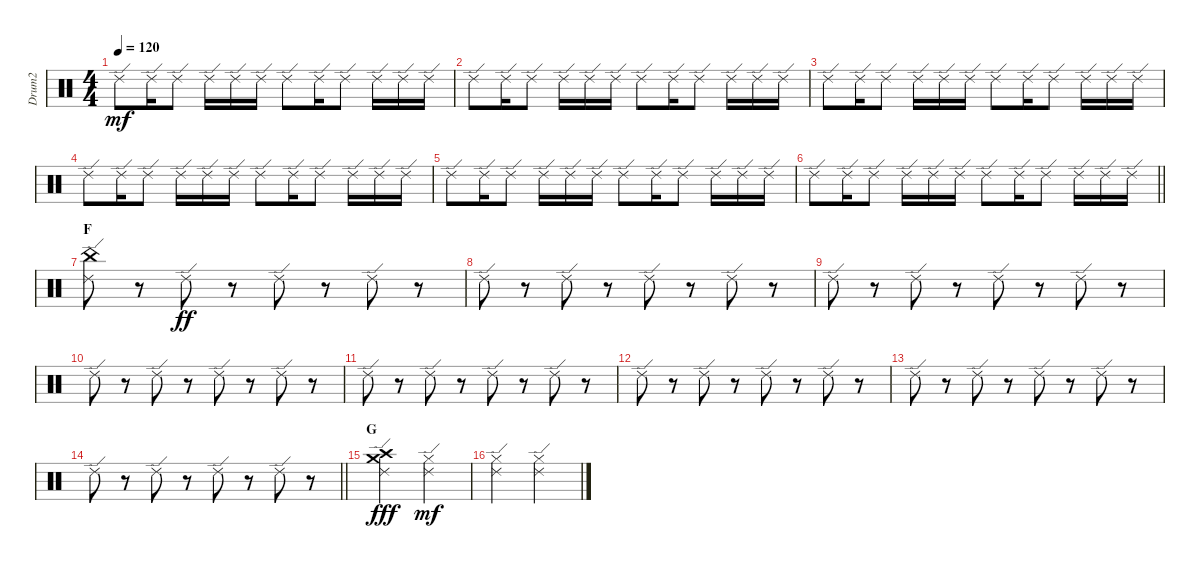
\track ("Drum2" "Drum2") {instrument percussion}
\staff {score}
\articulation defaults
\ts (4 4)
\tempo 120
\clef neutral
\ks c "Ride (edge) 2".8{dy mf} "Ride (edge) 2".16 "Ride (edge) 2".8 "Ride (edge) 2".16 "Ride (edge) 2".16 "Ride (edge) 2".16 "Ride (edge) 2".8 "Ride (edge) 2".16 "Ride (edge) 2".8 "Ride (edge) 2".16 "Ride (edge) 2".16 "Ride (edge) 2".16
|
"Ride (edge) 2".8 "Ride (edge) 2".16 "Ride (edge) 2".8 "Ride (edge) 2".16 "Ride (edge) 2".16 "Ride (edge) 2".16 "Ride (edge) 2".8 "Ride (edge) 2".16 "Ride (edge) 2".8 "Ride (edge) 2".16 "Ride (edge) 2".16 "Ride (edge) 2".16 |
"Ride (edge) 2".8 "Ride (edge) 2".16 "Ride (edge) 2".8 "Ride (edge) 2".16 "Ride (edge) 2".16 "Ride (edge) 2".16 "Ride (edge) 2".8 "Ride (edge) 2".16 "Ride (edge) 2".8 "Ride (edge) 2".16 "Ride (edge) 2".16 "Ride (edge) 2".16 |
"Ride (edge) 2".8 "Ride (edge) 2".16 "Ride (edge) 2".8 "Ride (edge) 2".16 "Ride (edge) 2".16 "Ride (edge) 2".16 "Ride (edge) 2".8 "Ride (edge) 2".16 "Ride (edge) 2".8 "Ride (edge) 2".16 "Ride (edge) 2".16 "Ride (edge) 2".16 |
"Ride (edge) 2".8 "Ride (edge) 2".16 "Ride (edge) 2".8 "Ride (edge) 2".16 "Ride (edge) 2".16 "Ride (edge) 2".16 "Ride (edge) 2".8 "Ride (edge) 2".16 "Ride (edge) 2".8 "Ride (edge) 2".16 "Ride (edge) 2".16 "Ride (edge) 2".16 |
\barLineRight lightlight "Ride (edge) 2".8 "Ride (edge) 2".16 "Ride (edge) 2".8 "Ride (edge) 2".16 "Ride (edge) 2".16 "Ride (edge) 2".16 "Ride (edge) 2".8 "Ride (edge) 2".16 "Ride (edge) 2".8 "Ride (edge) 2".16 "Ride (edge) 2".16 "Ride (edge) 2".16
|
\section ("" "F")
("China (hit)" "Ride (edge) 2").8 r.8 "Ride (edge) 2".8{dy ff} r.8 "Ride (edge) 2".8 r.8 "Ride (edge) 2".8 r.8 |
"Ride (edge) 2".8 r.8 "Ride (edge) 2".8 r.8 "Ride (edge) 2".8 r.8 "Ride (edge) 2".8 r.8 |
"Ride (edge) 2".8 r.8 "Ride (edge) 2".8 r.8 "Ride (edge) 2".8 r.8 "Ride (edge) 2".8 r.8 |
"Ride (edge) 2".8 r.8 "Ride (edge) 2".8 r.8 "Ride (edge) 2".8 r.8 "Ride (edge) 2".8 r.8 |
"Ride (edge) 2".8 r.8 "Ride (edge) 2".8 r.8 "Ride (edge) 2".8 r.8 "Ride (edge) 2".8 r.8 |
"Ride (edge) 2".8 r.8 "Ride (edge) 2".8 r.8 "Ride (edge) 2".8 r.8 "Ride (edge) 2".8 r.8 |
"Ride (edge) 2".8 r.8 "Ride (edge) 2".8 r.8 "Ride (edge) 2".8 r.8 "Ride (edge) 2".8 r.8 |
\barLineRight lightlight "Ride (edge) 2".8
r.8 "Ride (edge) 2".8 r.8 "Ride (edge) 2".8 r.8 "Ride (edge) 2".8 r.8 |
\section ("" "G")
("Crash medium (hit)" "Crash high (hit)" "Ride (edge) 2").2{dy fff} ("Ride (edge) 2" "Hi-Hat (closed)").2{dy mf} |
("Ride (edge) 2" "Hi-Hat (closed)").2 ("Ride (edge) 2" "Hi-Hat (closed)").2
